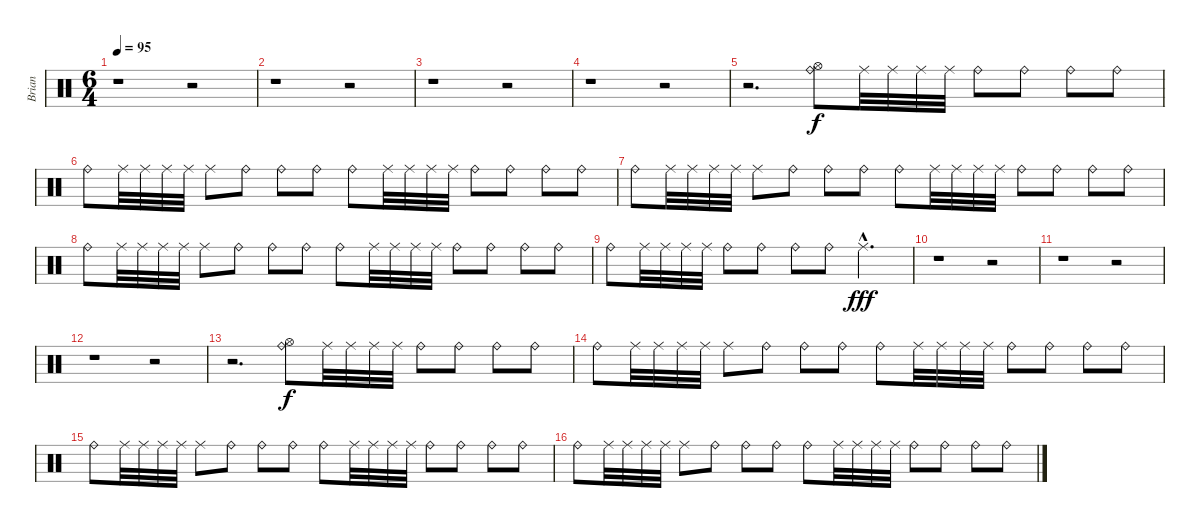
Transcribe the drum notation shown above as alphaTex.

\track ("Brian" "Brian") {instrument percussion}
\staff {score}
\articulation defaults
\ts (6 4)
\tempo 95
\clef neutral
\ks c
r.1{dy fff} r.2 |
r.1 r.2 |
r.1 r.2 |
r.1 r.2 |
r.2{d} ("Ride (bell)" "Hi-Hat (open)").8{dy f} "Ride (middle)".32 "Ride (middle)".32 "Ride (middle)".32 "Ride (middle)".32 "Ride (bell)".8 "Ride (bell)".8 "Ride (bell)".8 "Ride (bell)".8 |
"Ride (bell)".8 "Ride (middle)".32 "Ride (middle)".32 "Ride (middle)".32 "Ride (middle)".32 "Ride (middle)".8 "Ride (bell)".8 "Ride (bell)".8 "Ride (bell)".8 "Ride (bell)".8 "Ride (middle)".32 "Ride (middle)".32 "Ride (middle)".32 "Ride (middle)".32 "Ride (bell)".8 "Ride (bell)".8 "Ride (bell)".8 "Ride (bell)".8 |
"Ride (bell)".8 "Ride (middle)".32 "Ride (middle)".32 "Ride (middle)".32 "Ride (middle)".32 "Ride (middle)".8 "Ride (bell)".8 "Ride (bell)".8 "Ride (bell)".8 "Ride (bell)".8 "Ride (middle)".32 "Ride (middle)".32 "Ride (middle)".32 "Ride (middle)".32 "Ride (bell)".8 "Ride (bell)".8 "Ride (bell)".8 "Ride (bell)".8 |
"Ride (bell)".8 "Ride (middle)".32 "Ride (middle)".32 "Ride (middle)".32 "Ride (middle)".32 "Ride (middle)".8 "Ride (bell)".8 "Ride (bell)".8 "Ride (bell)".8 "Ride (bell)".8 "Ride (middle)".32 "Ride (middle)".32 "Ride (middle)".32 "Ride (middle)".32 "Ride (bell)".8 "Ride (bell)".8 "Ride (bell)".8 "Ride (bell)".8 |
"Ride (bell)".8 "Ride (middle)".32 "Ride (middle)".32 "Ride (middle)".32 "Ride (middle)".32 "Ride (bell)".8 "Ride (bell)".8 "Ride (bell)".8 "Ride (bell)".8 "Ride (middle)"{hac}.2{d dy fff} |
r.1 r.2 |
r.1 r.2 |
r.1 r.2 |
r.2{d} ("Ride (bell)" "Hi-Hat (open)").8{dy f} "Ride (middle)".32 "Ride (middle)".32 "Ride (middle)".32 "Ride (middle)".32 "Ride (bell)".8 "Ride (bell)".8 "Ride (bell)".8 "Ride (bell)".8 |
"Ride (bell)".8 "Ride (middle)".32 "Ride (middle)".32 "Ride (middle)".32 "Ride (middle)".32 "Ride (middle)".8 "Ride (bell)".8 "Ride (bell)".8 "Ride (bell)".8 "Ride (bell)".8 "Ride (middle)".32 "Ride (middle)".32 "Ride (middle)".32 "Ride (middle)".32 "Ride (bell)".8 "Ride (bell)".8 "Ride (bell)".8 "Ride (bell)".8 |
"Ride (bell)".8 "Ride (middle)".32 "Ride (middle)".32 "Ride (middle)".32 "Ride (middle)".32 "Ride (middle)".8 "Ride (bell)".8 "Ride (bell)".8 "Ride (bell)".8 "Ride (bell)".8 "Ride (middle)".32 "Ride (middle)".32 "Ride (middle)".32 "Ride (middle)".32 "Ride (bell)".8 "Ride (bell)".8 "Ride (bell)".8 "Ride (bell)".8 |
"Ride (bell)".8 "Ride (middle)".32 "Ride (middle)".32 "Ride (middle)".32 "Ride (middle)".32 "Ride (middle)".8 "Ride (bell)".8 "Ride (bell)".8 "Ride (bell)".8 "Ride (bell)".8 "Ride (middle)".32 "Ride (middle)".32 "Ride (middle)".32 "Ride (middle)".32 "Ride (bell)".8 "Ride (bell)".8 "Ride (bell)".8 "Ride (bell)".8
